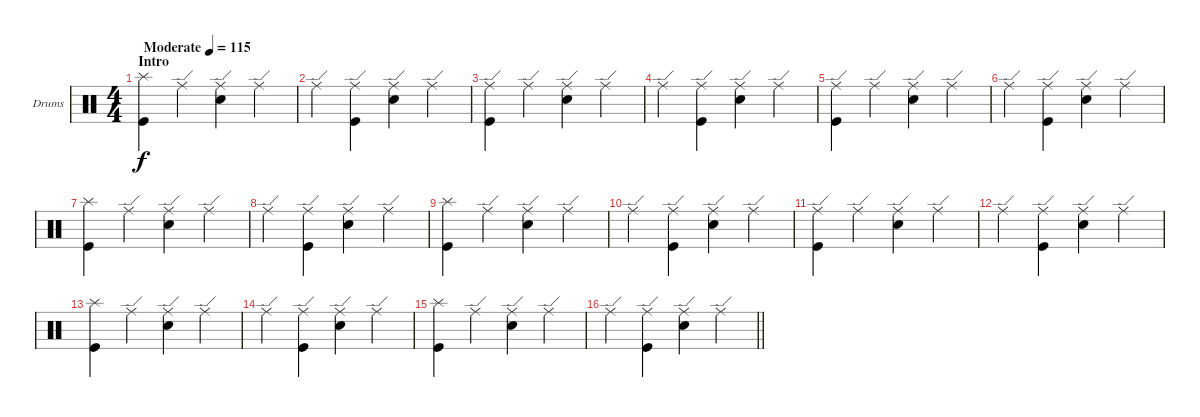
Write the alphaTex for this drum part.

\bracketExtendMode groupsimilarinstruments
\firstSystemTrackNameOrientation horizontal
\otherSystemsTrackNameOrientation horizontal
\track ("Drumkit" "Drums") {instrument percussion}
\staff {score}
\articulation defaults
\ts (4 4)
\beaming (8 2 2 2 2)
\section ("" "Intro")
\tempo (115 "Moderate")
\clef neutral
\ks c
("Splash (hit)" "Kick (hit)").4{dy f} "Ride (edge)".4 ("Ride (edge)" "Snare (hit) 2").4 "Ride (edge)".4 |
"Ride (edge)".4 ("Ride (edge)" "Kick (hit)").4 ("Ride (edge)" "Snare (hit) 2").4 "Ride (edge)".4 |
("Ride (edge)" "Kick (hit)").4 "Ride (edge)".4 ("Ride (edge)" "Snare (hit) 2").4 "Ride (edge)".4 |
"Ride (edge)".4 ("Ride (edge)" "Kick (hit)").4 ("Ride (edge)" "Snare (hit) 2").4 "Ride (edge)".4 |
("Ride (edge)" "Kick (hit)").4 "Ride (edge)".4 ("Ride (edge)" "Snare (hit) 2").4 "Ride (edge)".4 |
"Ride (edge)".4 ("Ride (edge)" "Kick (hit)").4 ("Ride (edge)" "Snare (hit) 2").4 "Ride (edge)".4 |
("Splash (hit)" "Kick (hit)").4 "Ride (edge)".4 ("Ride (edge)" "Snare (hit) 2").4 "Ride (edge)".4 |
"Ride (edge)".4 ("Ride (edge)" "Kick (hit)").4 ("Ride (edge)" "Snare (hit) 2").4 "Ride (edge)".4 |
("Splash (hit)" "Kick (hit)").4 "Ride (edge)".4 ("Ride (edge)" "Snare (hit) 2").4 "Ride (edge)".4 |
"Ride (edge)".4 ("Ride (edge)" "Kick (hit)").4 ("Ride (edge)" "Snare (hit) 2").4 "Ride (edge)".4 |
("Ride (edge)" "Kick (hit)").4 "Ride (edge)".4 ("Ride (edge)" "Snare (hit) 2").4 "Ride (edge)".4 |
"Ride (edge)".4 ("Ride (edge)" "Kick (hit)").4 ("Ride (edge)" "Snare (hit) 2").4 "Ride (edge)".4 |
("Splash (hit)" "Kick (hit)").4 "Ride (edge)".4 ("Ride (edge)" "Snare (hit) 2").4 "Ride (edge)".4 |
"Ride (edge)".4 ("Ride (edge)" "Kick (hit)").4 ("Ride (edge)" "Snare (hit) 2").4 "Ride (edge)".4 |
("Splash (hit)" "Kick (hit)").4 "Ride (edge)".4 ("Ride (edge)" "Snare (hit) 2").4 "Ride (edge)".4 |
\barLineRight lightlight "Ride (edge)".4
("Ride (edge)" "Kick (hit)").4 ("Ride (edge)" "Snare (hit) 2").4 "Ride (edge)".4
